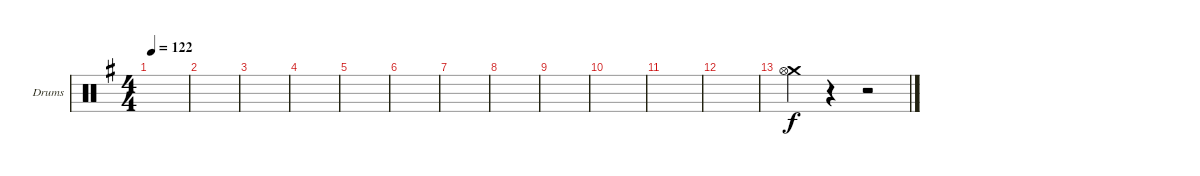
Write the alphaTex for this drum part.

\defaultSystemsLayout 4
\bracketExtendMode groupsimilarinstruments
\firstSystemTrackNameOrientation horizontal
\otherSystemsTrackNameOrientation horizontal
\track ("Drumkit" "Drums") {instrument percussion}
\staff {score}
\articulation defaults
\ts (4 4)
\tempo 122
\clef neutral
\ks g
|
|
|
|
|
|
|
|
|
|
|
|
("Crash medium (hit)" "Hi-Hat (open)").4{dy f} r.4 r.2
